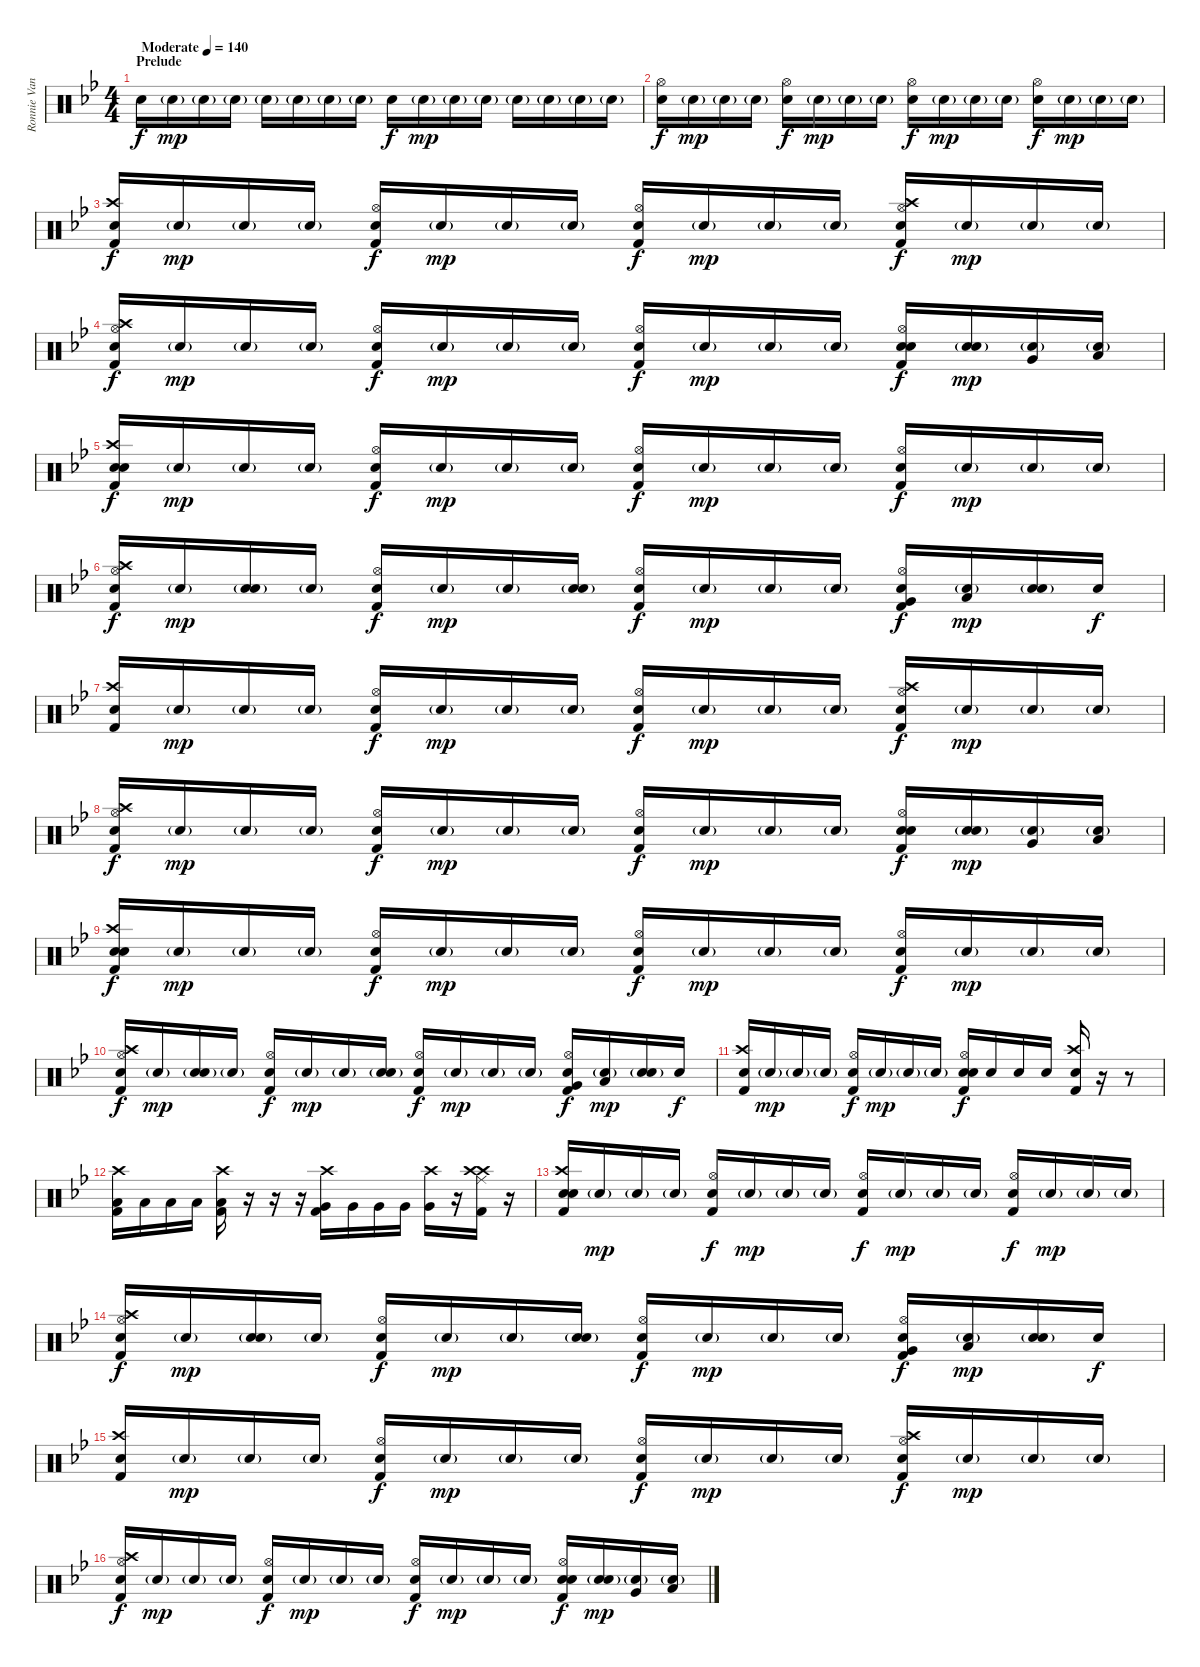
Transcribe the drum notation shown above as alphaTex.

\track ("Ronnie Vannucci Jr.'s drums" "Ronnie Van") {instrument percussion}
\staff {score}
\articulation defaults
\ts (4 4)
\section ("" "Prelude")
\tempo (140 "Moderate")
\clef neutral
\ks bb "Electric Snare (hit)".16{dy f} "Electric Snare (hit)"{g}.16{dy mp} "Electric Snare (hit)"{g}.16 "Electric Snare (hit)"{g}.16 "Electric Snare (hit)"{g}.16 "Electric Snare (hit)"{g}.16 "Electric Snare (hit)"{g}.16 "Electric Snare (hit)"{g}.16 "Electric Snare (hit)".16{dy f} "Electric Snare (hit)"{g}.16{dy mp} "Electric Snare (hit)"{g}.16 "Electric Snare (hit)"{g}.16 "Electric Snare (hit)"{g}.16 "Electric Snare (hit)"{g}.16 "Electric Snare (hit)"{g}.16 "Electric Snare (hit)"{g}.16
|
("Electric Snare (hit)" "Hi-Hat (open)").16{dy f} "Electric Snare (hit)"{g}.16{dy mp} "Electric Snare (hit)"{g}.16 "Electric Snare (hit)"{g}.16 ("Electric Snare (hit)" "Hi-Hat (open)").16{dy f} "Electric Snare (hit)"{g}.16{dy mp} "Electric Snare (hit)"{g}.16 "Electric Snare (hit)"{g}.16 ("Electric Snare (hit)" "Hi-Hat (open)").16{dy f} "Electric Snare (hit)"{g}.16{dy mp} "Electric Snare (hit)"{g}.16 "Electric Snare (hit)"{g}.16 ("Electric Snare (hit)" "Hi-Hat (open)").16{dy f} "Electric Snare (hit)"{g}.16{dy mp} "Electric Snare (hit)"{g}.16 "Electric Snare (hit)"{g}.16 |
("Electric Snare (hit)" "Crash high (hit)" "Kick (hit) 2").16{dy f} "Electric Snare (hit)"{g}.16{dy mp} "Electric Snare (hit)"{g}.16 "Electric Snare (hit)"{g}.16 ("Electric Snare (hit)" "Hi-Hat (open)" "Kick (hit) 2").16{dy f} "Electric Snare (hit)"{g}.16{dy mp} "Electric Snare (hit)"{g}.16 "Electric Snare (hit)"{g}.16 ("Electric Snare (hit)" "Hi-Hat (open)" "Kick (hit) 2").16{dy f} "Electric Snare (hit)"{g}.16{dy mp} "Electric Snare (hit)"{g}.16 "Electric Snare (hit)"{g}.16 ("Electric Snare (hit)" "Hi-Hat (open)" "Kick (hit) 2" "Crash high (hit)").16{dy f} "Electric Snare (hit)"{g}.16{dy mp} "Electric Snare (hit)"{g}.16 "Electric Snare (hit)"{g}.16 |
("Electric Snare (hit)" "Hi-Hat (open)" "Kick (hit) 2" "Crash high (hit)").16{dy f} "Electric Snare (hit)"{g}.16{dy mp} "Electric Snare (hit)"{g}.16 "Electric Snare (hit)"{g}.16 ("Electric Snare (hit)" "Hi-Hat (open)" "Kick (hit) 2").16{dy f} "Electric Snare (hit)"{g}.16{dy mp} "Electric Snare (hit)"{g}.16 "Electric Snare (hit)"{g}.16 ("Electric Snare (hit)" "Hi-Hat (open)" "Kick (hit) 2").16{dy f} "Electric Snare (hit)"{g}.16{dy mp} "Electric Snare (hit)"{g}.16 "Electric Snare (hit)"{g}.16 ("Electric Snare (hit)" "Hi-Hat (open)" "Kick (hit) 2" "Electric Snare (hit)").16{dy f} ("Electric Snare (hit)"{g} "Electric Snare (hit)").16{dy mp} ("Electric Snare (hit)"{g} "Very Low Tom (hit)").16 ("Electric Snare (hit)"{g} "Low Tom (hit)").16 |
("Electric Snare (hit)" "Crash high (hit)" "Kick (hit) 2" "Electric Snare (hit)").16{dy f} "Electric Snare (hit)"{g}.16{dy mp} "Electric Snare (hit)"{g}.16 "Electric Snare (hit)"{g}.16 ("Electric Snare (hit)" "Hi-Hat (open)" "Kick (hit) 2").16{dy f} "Electric Snare (hit)"{g}.16{dy mp} "Electric Snare (hit)"{g}.16 "Electric Snare (hit)"{g}.16 ("Electric Snare (hit)" "Hi-Hat (open)" "Kick (hit) 2").16{dy f} "Electric Snare (hit)"{g}.16{dy mp} "Electric Snare (hit)"{g}.16 "Electric Snare (hit)"{g}.16 ("Electric Snare (hit)" "Hi-Hat (open)" "Kick (hit) 2").16{dy f} "Electric Snare (hit)"{g}.16{dy mp} "Electric Snare (hit)"{g}.16 "Electric Snare (hit)"{g}.16 |
("Electric Snare (hit)" "Hi-Hat (open)" "Kick (hit) 2" "Crash high (hit)").16{dy f} "Electric Snare (hit)"{g}.16{dy mp} ("Electric Snare (hit)"{g} "Electric Snare (hit)").16 "Electric Snare (hit)"{g}.16 ("Electric Snare (hit)" "Hi-Hat (open)" "Kick (hit) 2").16{dy f} "Electric Snare (hit)"{g}.16{dy mp} "Electric Snare (hit)"{g}.16 ("Electric Snare (hit)"{g} "Electric Snare (hit)").16 ("Electric Snare (hit)" "Hi-Hat (open)" "Kick (hit) 2").16{dy f} "Electric Snare (hit)"{g}.16{dy mp} "Electric Snare (hit)"{g}.16 "Electric Snare (hit)"{g}.16 ("Electric Snare (hit)" "Hi-Hat (open)" "Kick (hit) 2" "Very Low Tom (hit)").16{dy f} ("Electric Snare (hit)"{g} "Low Tom (hit)").16{dy mp} ("Electric Snare (hit)"{g} "Electric Snare (hit)").16 "Electric Snare (hit)".16{dy f} |
("Electric Snare (hit)" "Crash high (hit)" "Kick (hit) 2").16 "Electric Snare (hit)"{g}.16{dy mp} "Electric Snare (hit)"{g}.16 "Electric Snare (hit)"{g}.16 ("Electric Snare (hit)" "Hi-Hat (open)" "Kick (hit) 2").16{dy f} "Electric Snare (hit)"{g}.16{dy mp} "Electric Snare (hit)"{g}.16 "Electric Snare (hit)"{g}.16 ("Electric Snare (hit)" "Hi-Hat (open)" "Kick (hit) 2").16{dy f} "Electric Snare (hit)"{g}.16{dy mp} "Electric Snare (hit)"{g}.16 "Electric Snare (hit)"{g}.16 ("Electric Snare (hit)" "Hi-Hat (open)" "Kick (hit) 2" "Crash high (hit)").16{dy f} "Electric Snare (hit)"{g}.16{dy mp} "Electric Snare (hit)"{g}.16 "Electric Snare (hit)"{g}.16 |
("Electric Snare (hit)" "Hi-Hat (open)" "Kick (hit) 2" "Crash high (hit)").16{dy f} "Electric Snare (hit)"{g}.16{dy mp} "Electric Snare (hit)"{g}.16 "Electric Snare (hit)"{g}.16 ("Electric Snare (hit)" "Hi-Hat (open)" "Kick (hit) 2").16{dy f} "Electric Snare (hit)"{g}.16{dy mp} "Electric Snare (hit)"{g}.16 "Electric Snare (hit)"{g}.16 ("Electric Snare (hit)" "Hi-Hat (open)" "Kick (hit) 2").16{dy f} "Electric Snare (hit)"{g}.16{dy mp} "Electric Snare (hit)"{g}.16 "Electric Snare (hit)"{g}.16 ("Electric Snare (hit)" "Hi-Hat (open)" "Kick (hit) 2" "Electric Snare (hit)").16{dy f} ("Electric Snare (hit)"{g} "Electric Snare (hit)").16{dy mp} ("Electric Snare (hit)"{g} "Very Low Tom (hit)").16 ("Electric Snare (hit)"{g} "Low Tom (hit)").16 |
("Electric Snare (hit)" "Crash high (hit)" "Kick (hit) 2" "Electric Snare (hit)").16{dy f} "Electric Snare (hit)"{g}.16{dy mp} "Electric Snare (hit)"{g}.16 "Electric Snare (hit)"{g}.16 ("Electric Snare (hit)" "Hi-Hat (open)" "Kick (hit) 2").16{dy f} "Electric Snare (hit)"{g}.16{dy mp} "Electric Snare (hit)"{g}.16 "Electric Snare (hit)"{g}.16 ("Electric Snare (hit)" "Hi-Hat (open)" "Kick (hit) 2").16{dy f} "Electric Snare (hit)"{g}.16{dy mp} "Electric Snare (hit)"{g}.16 "Electric Snare (hit)"{g}.16 ("Electric Snare (hit)" "Hi-Hat (open)" "Kick (hit) 2").16{dy f} "Electric Snare (hit)"{g}.16{dy mp} "Electric Snare (hit)"{g}.16 "Electric Snare (hit)"{g}.16 |
("Electric Snare (hit)" "Hi-Hat (open)" "Kick (hit) 2" "Crash high (hit)").16{dy f} "Electric Snare (hit)"{g}.16{dy mp} ("Electric Snare (hit)"{g} "Electric Snare (hit)").16 "Electric Snare (hit)"{g}.16 ("Electric Snare (hit)" "Hi-Hat (open)" "Kick (hit) 2").16{dy f} "Electric Snare (hit)"{g}.16{dy mp} "Electric Snare (hit)"{g}.16 ("Electric Snare (hit)"{g} "Electric Snare (hit)").16 ("Electric Snare (hit)" "Hi-Hat (open)" "Kick (hit) 2").16{dy f} "Electric Snare (hit)"{g}.16{dy mp} "Electric Snare (hit)"{g}.16 "Electric Snare (hit)"{g}.16 ("Electric Snare (hit)" "Hi-Hat (open)" "Kick (hit) 2" "Very Low Tom (hit)").16{dy f} ("Electric Snare (hit)"{g} "Low Tom (hit)").16{dy mp} ("Electric Snare (hit)"{g} "Electric Snare (hit)").16 "Electric Snare (hit)".16{dy f} |
("Electric Snare (hit)" "Crash high (hit)" "Kick (hit) 2").16 "Electric Snare (hit)"{g}.16{dy mp} "Electric Snare (hit)"{g}.16 "Electric Snare (hit)"{g}.16 ("Electric Snare (hit)" "Hi-Hat (open)" "Kick (hit) 2").16{dy f} "Electric Snare (hit)"{g}.16{dy mp} "Electric Snare (hit)"{g}.16 "Electric Snare (hit)"{g}.16 ("Electric Snare (hit)" "Hi-Hat (open)" "Kick (hit) 2" "Electric Snare (hit)").16{dy f} "Electric Snare (hit)".16 "Electric Snare (hit)".16 "Electric Snare (hit)".16 ("Crash high (hit)" "Kick (hit) 2" "Electric Snare (hit)").16 r.16 r.8 |
("Crash high (hit)" "Kick (hit) 2" "Low Tom (hit)").16 "Low Tom (hit)".16 "Low Tom (hit)".16 "Low Tom (hit)".16 ("Crash high (hit)" "Kick (hit) 2" "Low Tom (hit)").16 r.16 r.16 r.16 ("Crash high (hit)" "Kick (hit) 2" "Very Low Tom (hit)").16 "Very Low Tom (hit)".16 "Very Low Tom (hit)".16 "Very Low Tom (hit)".16 ("Crash high (hit)" "Very Low Tom (hit)").16 r.16 ("Crash high (hit)" "Ride (middle)" "Kick (hit) 2" "Crash high (hit)").16 r.16 |
("Electric Snare (hit)" "Crash high (hit)" "Kick (hit) 2" "Electric Snare (hit)").16 "Electric Snare (hit)"{g}.16{dy mp} "Electric Snare (hit)"{g}.16 "Electric Snare (hit)"{g}.16 ("Electric Snare (hit)" "Hi-Hat (open)" "Kick (hit) 2").16{dy f} "Electric Snare (hit)"{g}.16{dy mp} "Electric Snare (hit)"{g}.16 "Electric Snare (hit)"{g}.16 ("Electric Snare (hit)" "Hi-Hat (open)" "Kick (hit) 2").16{dy f} "Electric Snare (hit)"{g}.16{dy mp} "Electric Snare (hit)"{g}.16 "Electric Snare (hit)"{g}.16 ("Electric Snare (hit)" "Hi-Hat (open)" "Kick (hit) 2").16{dy f} "Electric Snare (hit)"{g}.16{dy mp} "Electric Snare (hit)"{g}.16 "Electric Snare (hit)"{g}.16 |
("Electric Snare (hit)" "Hi-Hat (open)" "Kick (hit) 2" "Crash high (hit)").16{dy f} "Electric Snare (hit)"{g}.16{dy mp} ("Electric Snare (hit)"{g} "Electric Snare (hit)").16 "Electric Snare (hit)"{g}.16 ("Electric Snare (hit)" "Hi-Hat (open)" "Kick (hit) 2").16{dy f} "Electric Snare (hit)"{g}.16{dy mp} "Electric Snare (hit)"{g}.16 ("Electric Snare (hit)"{g} "Electric Snare (hit)").16 ("Electric Snare (hit)" "Hi-Hat (open)" "Kick (hit) 2").16{dy f} "Electric Snare (hit)"{g}.16{dy mp} "Electric Snare (hit)"{g}.16 "Electric Snare (hit)"{g}.16 ("Electric Snare (hit)" "Hi-Hat (open)" "Kick (hit) 2" "Very Low Tom (hit)").16{dy f} ("Electric Snare (hit)"{g} "Low Tom (hit)").16{dy mp} ("Electric Snare (hit)"{g} "Electric Snare (hit)").16 "Electric Snare (hit)".16{dy f} |
("Electric Snare (hit)" "Crash high (hit)" "Kick (hit) 2").16 "Electric Snare (hit)"{g}.16{dy mp} "Electric Snare (hit)"{g}.16 "Electric Snare (hit)"{g}.16 ("Electric Snare (hit)" "Hi-Hat (open)" "Kick (hit) 2").16{dy f} "Electric Snare (hit)"{g}.16{dy mp} "Electric Snare (hit)"{g}.16 "Electric Snare (hit)"{g}.16 ("Electric Snare (hit)" "Hi-Hat (open)" "Kick (hit) 2").16{dy f} "Electric Snare (hit)"{g}.16{dy mp} "Electric Snare (hit)"{g}.16 "Electric Snare (hit)"{g}.16 ("Electric Snare (hit)" "Hi-Hat (open)" "Kick (hit) 2" "Crash high (hit)").16{dy f} "Electric Snare (hit)"{g}.16{dy mp} "Electric Snare (hit)"{g}.16 "Electric Snare (hit)"{g}.16 |
("Electric Snare (hit)" "Hi-Hat (open)" "Kick (hit) 2" "Crash high (hit)").16{dy f} "Electric Snare (hit)"{g}.16{dy mp} "Electric Snare (hit)"{g}.16 "Electric Snare (hit)"{g}.16 ("Electric Snare (hit)" "Hi-Hat (open)" "Kick (hit) 2").16{dy f} "Electric Snare (hit)"{g}.16{dy mp} "Electric Snare (hit)"{g}.16 "Electric Snare (hit)"{g}.16 ("Electric Snare (hit)" "Hi-Hat (open)" "Kick (hit) 2").16{dy f} "Electric Snare (hit)"{g}.16{dy mp} "Electric Snare (hit)"{g}.16 "Electric Snare (hit)"{g}.16 ("Electric Snare (hit)" "Hi-Hat (open)" "Kick (hit) 2" "Electric Snare (hit)").16{dy f} ("Electric Snare (hit)"{g} "Electric Snare (hit)").16{dy mp} ("Electric Snare (hit)"{g} "Very Low Tom (hit)").16 ("Electric Snare (hit)"{g} "Low Tom (hit)").16
